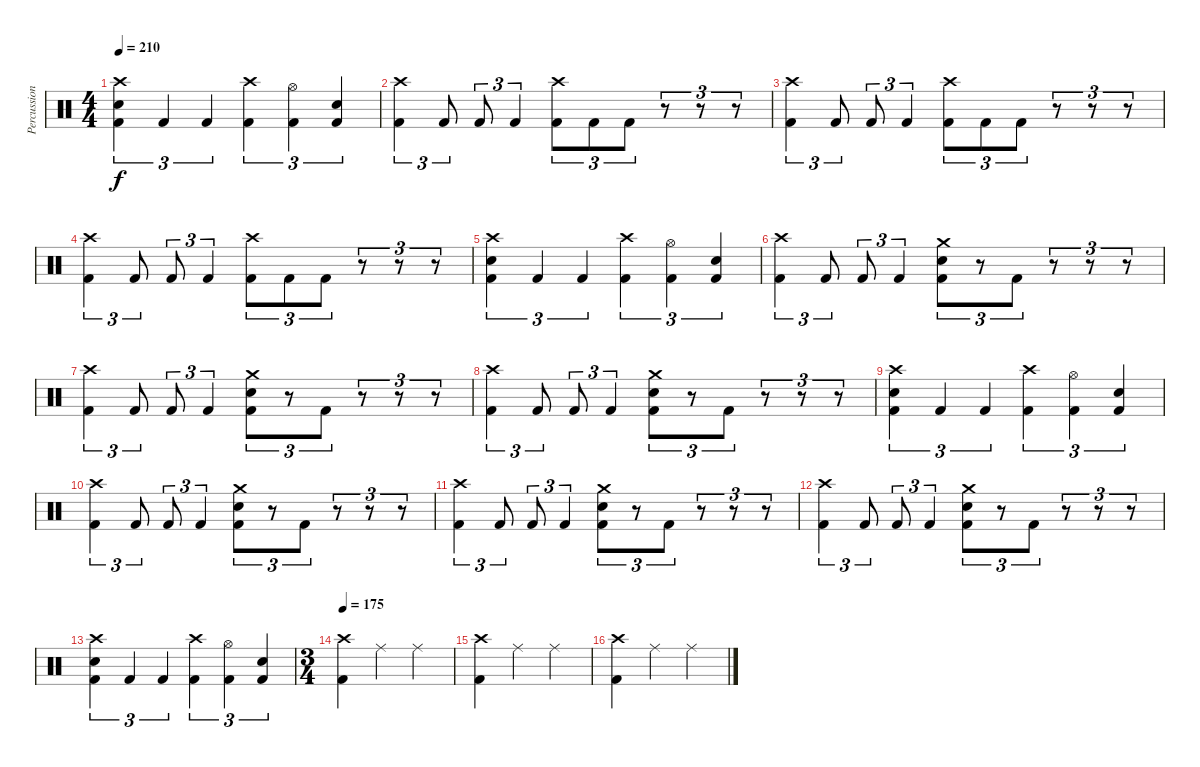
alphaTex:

\track ("Percussion" "Percussion") {instrument percussion}
\staff {score}
\articulation defaults
\ts (4 4)
\tempo 210
\clef neutral
\ks c
("Crash high (hit)" "Electric Snare (hit)" "Kick (hit) 2").4{tu (3 2) dy f} "Kick (hit) 2".4{tu (3 2)} "Kick (hit) 2".4{tu (3 2)} ("Crash high (hit)" "Kick (hit) 2").4{tu (3 2)} ("Hi-Hat (open)" "Kick (hit) 2").4{tu (3 2)} ("Electric Snare (hit)" "Kick (hit) 2").4{tu (3 2)} |
("Crash high (hit)" "Kick (hit) 2").4{tu (3 2)} "Kick (hit) 2".8{tu (3 2)} "Kick (hit) 2".8{tu (3 2)} "Kick (hit) 2".4{tu (3 2)} ("Crash high (hit)" "Kick (hit) 2").8{tu (3 2)} "Kick (hit) 2".8{tu (3 2)} "Kick (hit) 2".8{tu (3 2)} r.8{tu (3 2)} r.8{tu (3 2)} r.8{tu (3 2)} |
("Crash high (hit)" "Kick (hit) 2").4{tu (3 2)} "Kick (hit) 2".8{tu (3 2)} "Kick (hit) 2".8{tu (3 2)} "Kick (hit) 2".4{tu (3 2)} ("Crash high (hit)" "Kick (hit) 2").8{tu (3 2)} "Kick (hit) 2".8{tu (3 2)} "Kick (hit) 2".8{tu (3 2)} r.8{tu (3 2)} r.8{tu (3 2)} r.8{tu (3 2)} |
("Crash high (hit)" "Kick (hit) 2").4{tu (3 2)} "Kick (hit) 2".8{tu (3 2)} "Kick (hit) 2".8{tu (3 2)} "Kick (hit) 2".4{tu (3 2)} ("Crash high (hit)" "Kick (hit) 2").8{tu (3 2)} "Kick (hit) 2".8{tu (3 2)} "Kick (hit) 2".8{tu (3 2)} r.8{tu (3 2)} r.8{tu (3 2)} r.8{tu (3 2)} |
("Crash high (hit)" "Electric Snare (hit)" "Kick (hit) 2").4{tu (3 2)} "Kick (hit) 2".4{tu (3 2)} "Kick (hit) 2".4{tu (3 2)} ("Crash high (hit)" "Kick (hit) 2").4{tu (3 2)} ("Hi-Hat (open)" "Kick (hit) 2").4{tu (3 2)} ("Electric Snare (hit)" "Kick (hit) 2").4{tu (3 2)} |
("Crash high (hit)" "Kick (hit) 2").4{tu (3 2)} "Kick (hit) 2".8{tu (3 2)} "Kick (hit) 2".8{tu (3 2)} "Kick (hit) 2".4{tu (3 2)} ("Crash medium (hit)" "Electric Snare (hit)" "Kick (hit) 2").8{tu (3 2)} r.8{tu (3 2)} "Kick (hit) 2".8{tu (3 2)} r.8{tu (3 2)} r.8{tu (3 2)} r.8{tu (3 2)} |
("Crash high (hit)" "Kick (hit) 2").4{tu (3 2)} "Kick (hit) 2".8{tu (3 2)} "Kick (hit) 2".8{tu (3 2)} "Kick (hit) 2".4{tu (3 2)} ("Crash medium (hit)" "Electric Snare (hit)" "Kick (hit) 2").8{tu (3 2)} r.8{tu (3 2)} "Kick (hit) 2".8{tu (3 2)} r.8{tu (3 2)} r.8{tu (3 2)} r.8{tu (3 2)} |
("Crash high (hit)" "Kick (hit) 2").4{tu (3 2)} "Kick (hit) 2".8{tu (3 2)} "Kick (hit) 2".8{tu (3 2)} "Kick (hit) 2".4{tu (3 2)} ("Crash medium (hit)" "Electric Snare (hit)" "Kick (hit) 2").8{tu (3 2)} r.8{tu (3 2)} "Kick (hit) 2".8{tu (3 2)} r.8{tu (3 2)} r.8{tu (3 2)} r.8{tu (3 2)} |
("Crash high (hit)" "Electric Snare (hit)" "Kick (hit) 2").4{tu (3 2)} "Kick (hit) 2".4{tu (3 2)} "Kick (hit) 2".4{tu (3 2)} ("Crash high (hit)" "Kick (hit) 2").4{tu (3 2)} ("Hi-Hat (open)" "Kick (hit) 2").4{tu (3 2)} ("Electric Snare (hit)" "Kick (hit) 2").4{tu (3 2)} |
("Crash high (hit)" "Kick (hit) 2").4{tu (3 2)} "Kick (hit) 2".8{tu (3 2)} "Kick (hit) 2".8{tu (3 2)} "Kick (hit) 2".4{tu (3 2)} ("Crash medium (hit)" "Electric Snare (hit)" "Kick (hit) 2").8{tu (3 2)} r.8{tu (3 2)} "Kick (hit) 2".8{tu (3 2)} r.8{tu (3 2)} r.8{tu (3 2)} r.8{tu (3 2)} |
("Crash high (hit)" "Kick (hit) 2").4{tu (3 2)} "Kick (hit) 2".8{tu (3 2)} "Kick (hit) 2".8{tu (3 2)} "Kick (hit) 2".4{tu (3 2)} ("Crash medium (hit)" "Electric Snare (hit)" "Kick (hit) 2").8{tu (3 2)} r.8{tu (3 2)} "Kick (hit) 2".8{tu (3 2)} r.8{tu (3 2)} r.8{tu (3 2)} r.8{tu (3 2)} |
("Crash high (hit)" "Kick (hit) 2").4{tu (3 2)} "Kick (hit) 2".8{tu (3 2)} "Kick (hit) 2".8{tu (3 2)} "Kick (hit) 2".4{tu (3 2)} ("Crash medium (hit)" "Electric Snare (hit)" "Kick (hit) 2").8{tu (3 2)} r.8{tu (3 2)} "Kick (hit) 2".8{tu (3 2)} r.8{tu (3 2)} r.8{tu (3 2)} r.8{tu (3 2)} |
("Crash high (hit)" "Electric Snare (hit)" "Kick (hit) 2").4{tu (3 2)} "Kick (hit) 2".4{tu (3 2)} "Kick (hit) 2".4{tu (3 2)} ("Crash high (hit)" "Kick (hit) 2").4{tu (3 2)} ("Hi-Hat (open)" "Kick (hit) 2").4{tu (3 2)} ("Electric Snare (hit)" "Kick (hit) 2").4{tu (3 2)} |
\ts (3 4)
\tempo 175
("Crash high (hit)" "Kick (hit) 2").4 "Ride (middle)".4 "Ride (middle)".4 |
("Crash high (hit)" "Kick (hit) 2").4 "Ride (middle)".4 "Ride (middle)".4 |
("Crash high (hit)" "Kick (hit) 2").4 "Ride (middle)".4 "Ride (middle)".4
